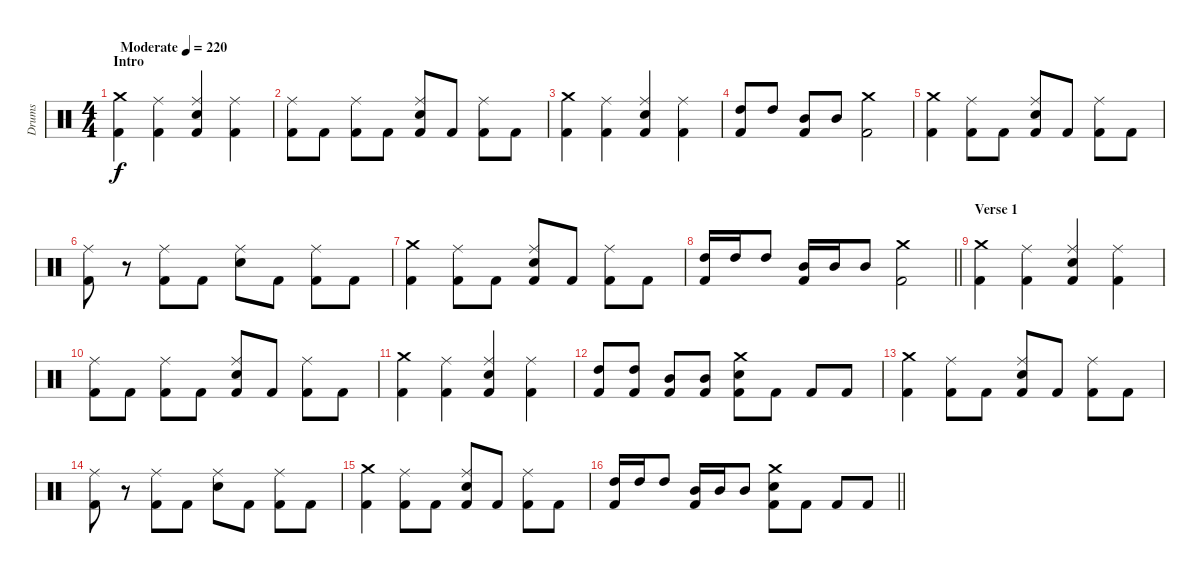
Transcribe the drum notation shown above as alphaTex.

\track ("Drums" "Drums") {instrument percussion}
\staff {score}
\articulation defaults
\ts (4 4)
\section ("" "Intro")
\tempo (220 "Moderate")
\clef neutral
\ks c
("Crash medium (hit)" "Kick (hit) 2").4{dy f} ("Ride (middle)" "Kick (hit) 2").4 ("Ride (middle)" "Electric Snare (hit)" "Kick (hit) 2").4 ("Ride (middle)" "Kick (hit) 2").4 |
("Ride (middle)" "Kick (hit) 2").8 "Kick (hit) 2".8 ("Ride (middle)" "Kick (hit) 2").8 "Kick (hit) 2".8 ("Ride (middle)" "Electric Snare (hit)" "Kick (hit) 2").8 "Kick (hit) 2".8 ("Ride (middle)" "Kick (hit) 2").8 "Kick (hit) 2".8 |
("Crash medium (hit)" "Kick (hit) 2").4 ("Ride (middle)" "Kick (hit) 2").4 ("Ride (middle)" "Electric Snare (hit)" "Kick (hit) 2").4 ("Ride (middle)" "Kick (hit) 2").4 |
("High Tom (hit)" "Kick (hit) 2").8 "High Tom (hit)".8 ("Mid Tom (hit)" "Kick (hit) 2").8 "Mid Tom (hit)".8 ("Crash medium (hit)" "Kick (hit) 2").2 |
("Crash medium (hit)" "Kick (hit) 2").4 ("Ride (middle)" "Kick (hit) 2").8 "Kick (hit) 2".8 ("Ride (middle)" "Electric Snare (hit)" "Kick (hit) 2").8 "Kick (hit) 2".8 ("Ride (middle)" "Kick (hit) 2").8 "Kick (hit) 2".8 |
("Ride (middle)" "Kick (hit) 2").8 r.8 ("Ride (middle)" "Kick (hit) 2").8 "Kick (hit) 2".8 ("Ride (middle)" "Electric Snare (hit)").8 "Kick (hit) 2".8 ("Ride (middle)" "Kick (hit) 2").8 "Kick (hit) 2".8 |
("Crash medium (hit)" "Kick (hit) 2").4 ("Ride (middle)" "Kick (hit) 2").8 "Kick (hit) 2".8 ("Ride (middle)" "Electric Snare (hit)" "Kick (hit) 2").8 "Kick (hit) 2".8 ("Ride (middle)" "Kick (hit) 2").8 "Kick (hit) 2".8 |
\barLineRight lightlight
("High Tom (hit)" "Kick (hit) 2").16 "High Tom (hit)".16 "High Tom (hit)".8 ("Mid Tom (hit)" "Kick (hit) 2").16 "Mid Tom (hit)".16 "Mid Tom (hit)".8 ("Crash medium (hit)" "Kick (hit) 2").2 |
\section ("" "Verse 1")
("Crash medium (hit)" "Kick (hit) 2").4 ("Ride (middle)" "Kick (hit) 2").4 ("Ride (middle)" "Electric Snare (hit)" "Kick (hit) 2").4 ("Ride (middle)" "Kick (hit) 2").4 |
("Ride (middle)" "Kick (hit) 2").8 "Kick (hit) 2".8 ("Ride (middle)" "Kick (hit) 2").8 "Kick (hit) 2".8 ("Ride (middle)" "Electric Snare (hit)" "Kick (hit) 2").8 "Kick (hit) 2".8 ("Ride (middle)" "Kick (hit) 2").8 "Kick (hit) 2".8 |
("Crash medium (hit)" "Kick (hit) 2").4 ("Ride (middle)" "Kick (hit) 2").4 ("Ride (middle)" "Electric Snare (hit)" "Kick (hit) 2").4 ("Ride (middle)" "Kick (hit) 2").4 |
("High Tom (hit)" "Kick (hit) 2").8 ("High Tom (hit)" "Kick (hit) 2").8 ("Mid Tom (hit)" "Kick (hit) 2").8 ("Mid Tom (hit)" "Kick (hit) 2").8 ("Crash medium (hit)" "Electric Snare (hit)" "Kick (hit) 2").8 "Kick (hit) 2".8 "Kick (hit) 2".8 "Kick (hit) 2".8 |
("Crash medium (hit)" "Kick (hit) 2").4 ("Ride (middle)" "Kick (hit) 2").8 "Kick (hit) 2".8 ("Ride (middle)" "Electric Snare (hit)" "Kick (hit) 2").8 "Kick (hit) 2".8 ("Ride (middle)" "Kick (hit) 2").8 "Kick (hit) 2".8 |
("Ride (middle)" "Kick (hit) 2").8 r.8 ("Ride (middle)" "Kick (hit) 2").8 "Kick (hit) 2".8 ("Ride (middle)" "Electric Snare (hit)").8 "Kick (hit) 2".8 ("Ride (middle)" "Kick (hit) 2").8 "Kick (hit) 2".8 |
("Crash medium (hit)" "Kick (hit) 2").4 ("Ride (middle)" "Kick (hit) 2").8 "Kick (hit) 2".8 ("Ride (middle)" "Electric Snare (hit)" "Kick (hit) 2").8 "Kick (hit) 2".8 ("Ride (middle)" "Kick (hit) 2").8 "Kick (hit) 2".8 |
\barLineRight lightlight
("High Tom (hit)" "Kick (hit) 2").16 "High Tom (hit)".16 "High Tom (hit)".8 ("Mid Tom (hit)" "Kick (hit) 2").16 "Mid Tom (hit)".16 "Mid Tom (hit)".8 ("Crash medium (hit)" "Electric Snare (hit)" "Kick (hit) 2").8 "Kick (hit) 2".8 "Kick (hit) 2".8 "Kick (hit) 2".8
